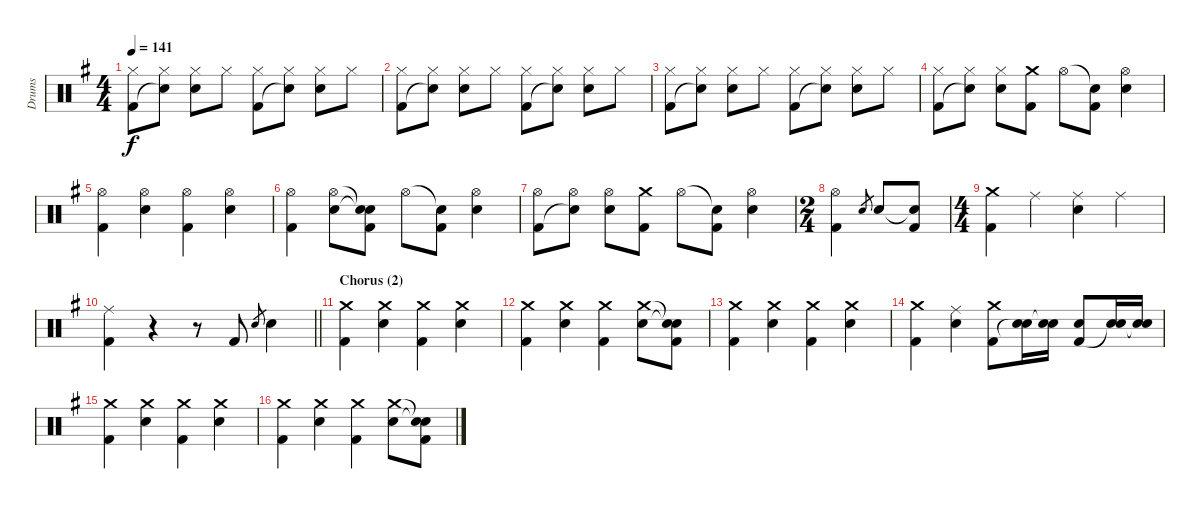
\track ("Drums" "Drums") {instrument percussion}
\staff {score}
\articulation defaults
\ts (4 4)
\tempo 141
\clef neutral
\ks g
("Hi-Hat (closed)" "Kick (hit) 2").8{dy f} ("Hi-Hat (closed)" "Snare (hit)"{t}).8 ("Hi-Hat (closed)" "Electric Snare (hit)").8 "Hi-Hat (closed)".8 ("Hi-Hat (closed)" "Kick (hit) 2").8 ("Hi-Hat (closed)" "Snare (hit)"{t}).8 ("Hi-Hat (closed)" "Electric Snare (hit)").8 "Hi-Hat (closed)".8 |
("Hi-Hat (closed)" "Kick (hit) 2").8 ("Hi-Hat (closed)" "Snare (hit)"{t}).8 ("Hi-Hat (closed)" "Electric Snare (hit)").8 "Hi-Hat (closed)".8 ("Hi-Hat (closed)" "Kick (hit) 2").8 ("Hi-Hat (closed)" "Snare (hit)"{t}).8 ("Hi-Hat (closed)" "Electric Snare (hit)").8 "Hi-Hat (closed)".8 |
("Hi-Hat (closed)" "Kick (hit) 2").8 ("Hi-Hat (closed)" "Snare (hit)"{t}).8 ("Hi-Hat (closed)" "Electric Snare (hit)").8 "Hi-Hat (closed)".8 ("Hi-Hat (closed)" "Kick (hit) 2").8 ("Hi-Hat (closed)" "Snare (hit)"{t}).8 ("Hi-Hat (closed)" "Electric Snare (hit)").8 "Hi-Hat (closed)".8 |
("Hi-Hat (closed)" "Kick (hit) 2").8 ("Hi-Hat (closed)" "Snare (hit)"{t}).8 ("Hi-Hat (closed)" "Electric Snare (hit)").8 ("Crash medium (hit)" "Kick (hit) 2").8 "Hi-Hat (open)".8 ("Snare (hit)"{t} "Kick (hit) 2").8 ("Hi-Hat (open)" "Electric Snare (hit)").4 |
("Hi-Hat (open)" "Kick (hit) 2").4 ("Hi-Hat (open)" "Electric Snare (hit)").4 ("Hi-Hat (open)" "Kick (hit) 2").4 ("Hi-Hat (open)" "Electric Snare (hit)").4 |
("Hi-Hat (open)" "Kick (hit) 2").4 ("Hi-Hat (open)" "Electric Snare (hit)").8 ("Snare (hit)"{t} "Snare (hit)"{t} "Kick (hit) 2").8 "Hi-Hat (open)".8 ("Snare (hit)"{t} "Kick (hit) 2").8 ("Hi-Hat (open)" "Electric Snare (hit)").4 |
("Hi-Hat (open)" "Kick (hit) 2").8 ("Hi-Hat (open)" "Snare (hit)"{t}).8 ("Hi-Hat (open)" "Electric Snare (hit)").8 ("Crash medium (hit)" "Kick (hit) 2").8 "Hi-Hat (open)".8 ("Snare (hit)"{t} "Kick (hit) 2").8 ("Hi-Hat (open)" "Electric Snare (hit)").4 |
\ts (2 4)
("Hi-Hat (open)" "Kick (hit) 2").4 "Electric Snare (hit)".8{gr} "Electric Snare (hit)".8 ("Snare (hit)"{t} "Kick (hit) 2").8 |
\ts (4 4)
("Crash medium (hit)" "Kick (hit) 2").4 "Ride (middle)".4 ("Ride (middle)" "Electric Snare (hit)").4 "Ride (middle)".4 |
\barLineRight lightlight
("Ride (middle)" "Kick (hit) 2").4 r.4 r.8 "Kick (hit) 2".8 "Electric Snare (hit)".8{gr} "Electric Snare (hit)".4 |
\section ("" "Chorus (2)")
("Crash medium (hit)" "Kick (hit) 2").4 ("Crash medium (hit)" "Electric Snare (hit)").4 ("Crash medium (hit)" "Kick (hit) 2").4 ("Crash medium (hit)" "Electric Snare (hit)").4 |
("Crash medium (hit)" "Kick (hit) 2").4 ("Crash medium (hit)" "Electric Snare (hit)").4 ("Crash medium (hit)" "Kick (hit) 2").4 ("Crash medium (hit)" "Electric Snare (hit)").8 ("Snare (hit)"{t} "Snare (hit)"{t} "Kick (hit) 2").8 |
("Crash medium (hit)" "Kick (hit) 2").4 ("Crash medium (hit)" "Electric Snare (hit)").4 ("Crash medium (hit)" "Kick (hit) 2").4 ("Crash medium (hit)" "Electric Snare (hit)").4 |
("Crash medium (hit)" "Kick (hit) 2").4 ("Ride (middle)" "Electric Snare (hit)").4 ("Crash medium (hit)" "Kick (hit) 2").8 ("Electric Snare (hit)" "Snare (hit)"{t}).16 ("Electric Snare (hit)" "Snare (hit)"{t}).16 ("Electric Snare (hit)" "Kick (hit) 2").8 ("Electric Snare (hit)" "Snare (hit)"{t}).16 ("Electric Snare (hit)" "Snare (hit)"{t}).16 |
("Crash medium (hit)" "Kick (hit) 2").4 ("Crash medium (hit)" "Electric Snare (hit)").4 ("Crash medium (hit)" "Kick (hit) 2").4 ("Crash medium (hit)" "Electric Snare (hit)").4 |
("Crash medium (hit)" "Kick (hit) 2").4 ("Crash medium (hit)" "Electric Snare (hit)").4 ("Crash medium (hit)" "Kick (hit) 2").4 ("Crash medium (hit)" "Electric Snare (hit)").8 ("Snare (hit)"{t} "Snare (hit)"{t} "Kick (hit) 2").8
